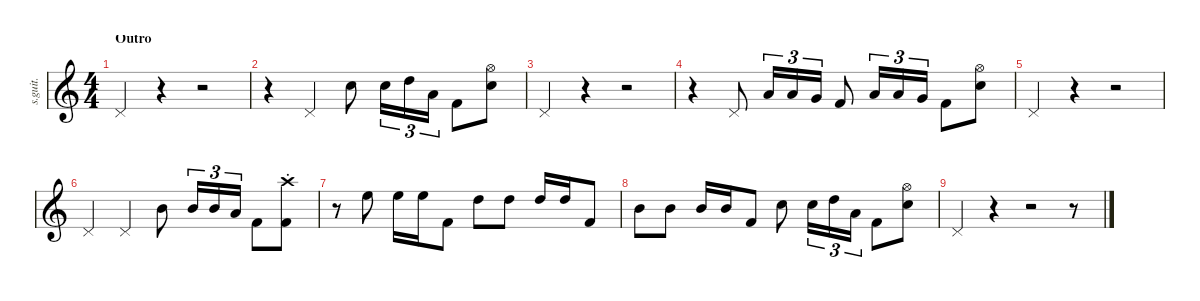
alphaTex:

\defaultSystemsLayout 4
\hideDynamics
\bracketExtendMode nobrackets
\track ("Nicko McBrain" "s.guit.") {instrument percussion}
\staff {score}
\articulation defaults
\ts (4 4)
\section ("" "Outro")
\tempo (162 hide)
\clef g2
\ks c "Pedal Hi-Hat (hit)".4{dy mf}
r.4 r.2 |
r.4 "Pedal Hi-Hat (hit)".4 "Snare (hit) 2".8 "Snare (hit) 2".16{tu (3 2)} "High Tom (hit)".16{tu (3 2)} "Low Tom (hit)".16{tu (3 2)} "Kick (hit) 2".8 ("Snare (hit) 2" "Hi-Hat (open)").8 |
"Pedal Hi-Hat (hit)".4 r.4 r.2 |
r.4 "Pedal Hi-Hat (hit)".8 "Low Tom (hit)".16{tu (3 2)} "Low Tom (hit)".16{tu (3 2)} "Very Low Tom (hit)".16{tu (3 2)} "Kick (hit) 2".8 "Low Tom (hit)".16{tu (3 2)} "Low Tom (hit)".16{tu (3 2)} "Very Low Tom (hit)".16{tu (3 2)} "Kick (hit) 2".8 ("Snare (hit) 2" "Hi-Hat (open)").8 |
"Pedal Hi-Hat (hit)".4 r.4 r.2 |
"Pedal Hi-Hat (hit)".4 "Pedal Hi-Hat (hit)".4 "Mid Tom (hit)".8 "Mid Tom (hit)".16{tu (3 2)} "Mid Tom (hit)".16{tu (3 2)} "Low Tom (hit)".16{tu (3 2)} "Kick (hit) 2".8{dy f} ("Kick (hit) 2" "Crash high (choke)").8 |
r.8 "High Floor Tom (hit)".8{dy mf} "High Floor Tom (hit)".16 "High Floor Tom (hit)".16 "Kick (hit) 2".8 "High Tom (hit)".8 "High Tom (hit)".8 "High Tom (hit)".16 "High Tom (hit)".16 "Kick (hit) 2".8 |
"Mid Tom (hit)".8 "Mid Tom (hit)".8 "Mid Tom (hit)".16 "Mid Tom (hit)".16 "Kick (hit) 2".8 "Snare (hit) 2".8 "Snare (hit) 2".16{tu (3 2)} "High Tom (hit)".16{tu (3 2)} "Low Tom (hit)".16{tu (3 2)} "Kick (hit) 2".8 ("Snare (hit) 2" "Hi-Hat (open)").8 |
"Pedal Hi-Hat (hit)".4 r.4 r.2 r.8
